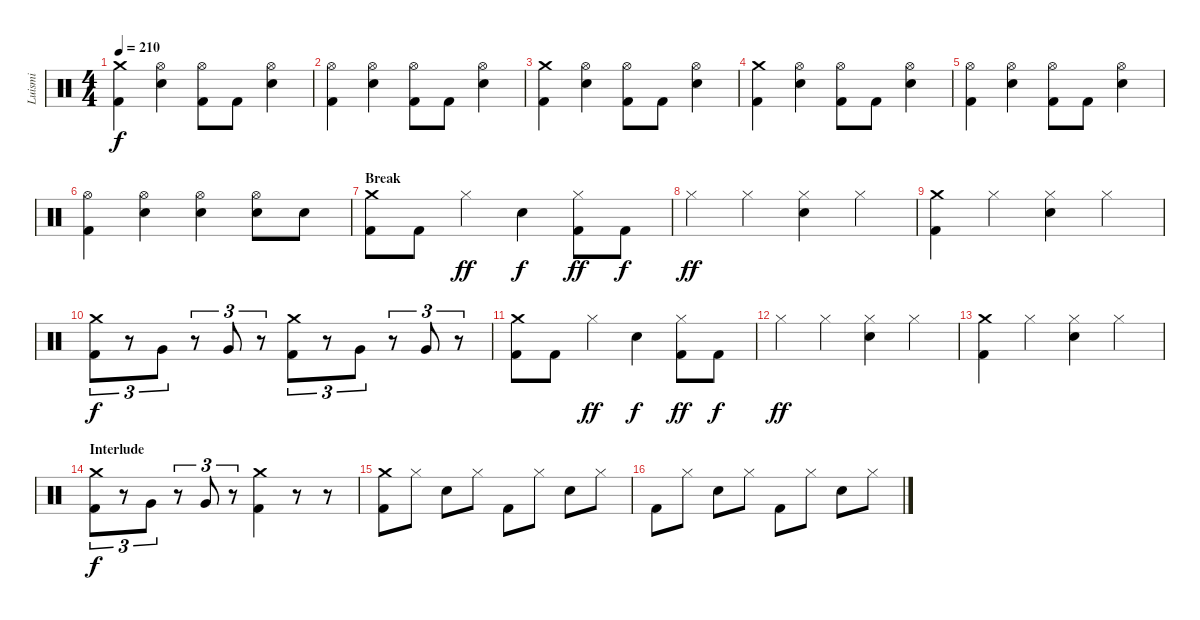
\track ("Luismi" "Luismi") {instrument percussion}
\staff {score}
\articulation defaults
\ts (4 4)
\tempo 210
\clef neutral
\ks c
("Crash medium (hit)" "Kick (hit) 2").4{dy f} ("Hi-Hat (open)" "Snare (hit) 2").4 ("Hi-Hat (open)" "Kick (hit) 2").8 "Kick (hit) 2".8 ("Hi-Hat (open)" "Snare (hit) 2").4 |
("Hi-Hat (open)" "Kick (hit) 2").4 ("Hi-Hat (open)" "Snare (hit) 2").4 ("Hi-Hat (open)" "Kick (hit) 2").8 "Kick (hit) 2".8 ("Hi-Hat (open)" "Snare (hit) 2").4 |
("Crash medium (hit)" "Kick (hit) 2").4 ("Hi-Hat (open)" "Snare (hit) 2").4 ("Hi-Hat (open)" "Kick (hit) 2").8 "Kick (hit) 2".8 ("Hi-Hat (open)" "Snare (hit) 2").4 |
("Crash medium (hit)" "Kick (hit) 2").4 ("Hi-Hat (open)" "Snare (hit) 2").4 ("Hi-Hat (open)" "Kick (hit) 2").8 "Kick (hit) 2".8 ("Hi-Hat (open)" "Snare (hit) 2").4 |
("Hi-Hat (open)" "Kick (hit) 2").4 ("Hi-Hat (open)" "Snare (hit) 2").4 ("Hi-Hat (open)" "Kick (hit) 2").8 "Kick (hit) 2".8 ("Hi-Hat (open)" "Snare (hit) 2").4 |
("Hi-Hat (open)" "Kick (hit) 2").4 ("Hi-Hat (open)" "Snare (hit) 2").4 ("Hi-Hat (open)" "Snare (hit) 2").4 ("Hi-Hat (open)" "Snare (hit) 2").8 "Snare (hit) 2".8 |
\section ("" "Break")
("Crash medium (hit)" "Kick (hit) 2").8 "Kick (hit) 2".8 "Hi-Hat (closed)".4{dy ff} "Snare (hit) 2".4{dy f} ("Hi-Hat (closed)" "Kick (hit) 2").8{dy ff} "Kick (hit) 2".8{dy f} |
"Hi-Hat (closed)".4{dy ff} "Hi-Hat (closed)".4 ("Hi-Hat (closed)" "Snare (hit) 2").4 "Hi-Hat (closed)".4 |
("Crash medium (hit)" "Kick (hit) 2").4 "Hi-Hat (closed)".4 ("Hi-Hat (closed)" "Snare (hit) 2").4 "Hi-Hat (closed)".4 |
("Crash medium (hit)" "Kick (hit) 2").8{tu (3 2) dy f} r.8{tu (3 2)} "Very Low Tom (hit)".8{tu (3 2)} r.8{tu (3 2)} "Very Low Tom (hit)".8{tu (3 2)} r.8{tu (3 2)} ("Crash medium (hit)" "Kick (hit) 2").8{tu (3 2)} r.8{tu (3 2)} "Very Low Tom (hit)".8{tu (3 2)} r.8{tu (3 2)} "Very Low Tom (hit)".8{tu (3 2)} r.8{tu (3 2)} |
("Crash medium (hit)" "Kick (hit) 2").8 "Kick (hit) 2".8 "Hi-Hat (closed)".4{dy ff} "Snare (hit) 2".4{dy f} ("Hi-Hat (closed)" "Kick (hit) 2").8{dy ff} "Kick (hit) 2".8{dy f} |
"Hi-Hat (closed)".4{dy ff} "Hi-Hat (closed)".4 ("Hi-Hat (closed)" "Snare (hit) 2").4 "Hi-Hat (closed)".4 |
("Crash medium (hit)" "Kick (hit) 2").4 "Hi-Hat (closed)".4 ("Hi-Hat (closed)" "Snare (hit) 2").4 "Hi-Hat (closed)".4 |
\section ("" "Interlude")
("Crash medium (hit)" "Kick (hit) 2").8{tu (3 2) dy f} r.8{tu (3 2)} "Very Low Tom (hit)".8{tu (3 2)} r.8{tu (3 2)} "Very Low Tom (hit)".8{tu (3 2)} r.8{tu (3 2)} ("Crash medium (hit)" "Kick (hit) 2").4 r.8 r.8 |
("Crash medium (hit)" "Kick (hit) 2").8 "Hi-Hat (closed)".8 "Snare (hit) 2".8 "Hi-Hat (closed)".8 "Kick (hit) 2".8 "Hi-Hat (closed)".8 "Snare (hit) 2".8 "Hi-Hat (closed)".8 |
"Kick (hit) 2".8 "Hi-Hat (closed)".8 "Snare (hit) 2".8 "Hi-Hat (closed)".8 "Kick (hit) 2".8 "Hi-Hat (closed)".8 "Snare (hit) 2".8 "Hi-Hat (closed)".8
